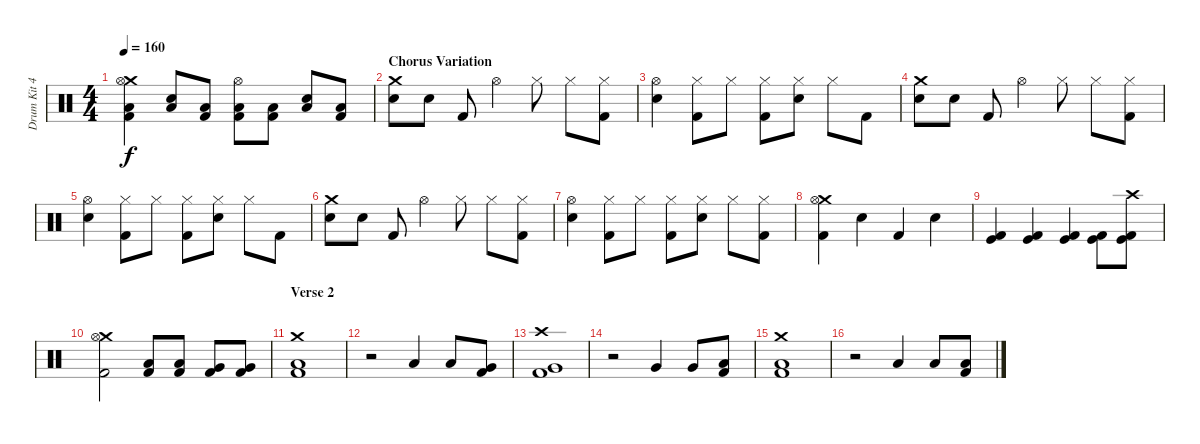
\track ("Drum Kit 42" "Drum Kit 4") {instrument percussion}
\staff {score}
\articulation defaults
\ts (4 4)
\tempo 160
\clef neutral
\ks c
("Crash medium (hit)" "Hi-Hat (open)" "Low Floor Tom (hit)" "Kick (hit) 2").4{dy f} ("Low Floor Tom (hit)" "Snare (hit) 2").8 ("Low Floor Tom (hit)" "Kick (hit) 2").8 ("Hi-Hat (open)" "Low Floor Tom (hit)" "Kick (hit) 2").8 ("Low Floor Tom (hit)" "Kick (hit) 2").8 ("Low Tom (hit)" "Snare (hit) 2").8 ("Low Tom (hit)" "Kick (hit) 2").8 |
\section ("" "Chorus Variation")
("Crash medium (hit)" "Snare (hit) 2").8 "Snare (hit) 2".8 "Kick (hit) 2".8 "Hi-Hat (open)".4 "Hi-Hat (closed)".8 "Hi-Hat (closed)".8 ("Hi-Hat (closed)" "Kick (hit) 2").8 |
("Hi-Hat (open)" "Snare (hit) 2").4 ("Hi-Hat (closed)" "Kick (hit) 2").8 "Hi-Hat (closed)".8 ("Hi-Hat (closed)" "Kick (hit) 2").8 ("Hi-Hat (closed)" "Snare (hit) 2").8 "Hi-Hat (closed)".8 "Kick (hit) 2".8 |
("Crash medium (hit)" "Snare (hit) 2").8 "Snare (hit) 2".8 "Kick (hit) 2".8 "Hi-Hat (open)".4 "Hi-Hat (closed)".8 "Hi-Hat (closed)".8 ("Hi-Hat (closed)" "Kick (hit) 2").8 |
("Hi-Hat (open)" "Snare (hit) 2").4 ("Hi-Hat (closed)" "Kick (hit) 2").8 "Hi-Hat (closed)".8 ("Hi-Hat (closed)" "Kick (hit) 2").8 ("Hi-Hat (closed)" "Snare (hit) 2").8 "Hi-Hat (closed)".8 "Kick (hit) 2".8 |
("Crash medium (hit)" "Snare (hit) 2").8 "Snare (hit) 2".8 "Kick (hit) 2".8 "Hi-Hat (open)".4 "Hi-Hat (closed)".8 "Hi-Hat (closed)".8 ("Hi-Hat (closed)" "Kick (hit) 2").8 |
("Hi-Hat (open)" "Snare (hit) 2").4 ("Hi-Hat (closed)" "Kick (hit) 2").8 "Hi-Hat (closed)".8 ("Hi-Hat (closed)" "Kick (hit) 2").8 ("Hi-Hat (closed)" "Snare (hit) 2").8 "Hi-Hat (closed)".8 ("Hi-Hat (closed)" "Kick (hit) 2").8 |
("Crash medium (hit)" "Hi-Hat (open)" "Kick (hit) 2").4 "Snare (hit) 2".4 "Kick (hit) 2".4 "Snare (hit) 2".4 |
("Kick (hit)" "Kick (hit) 2").4 ("Kick (hit)" "Kick (hit) 2").4 ("Kick (hit)" "Kick (hit) 2").4 ("Kick (hit)" "Kick (hit) 2").8 ("Crash high (hit)" "Kick (hit)" "Kick (hit) 2").8 |
("Crash medium (hit)" "Hi-Hat (open)" "Kick (hit) 2").2 ("Low Tom (hit)" "Kick (hit) 2").8 ("Low Tom (hit)" "Kick (hit) 2").8 ("Very Low Tom (hit)" "Kick (hit) 2").8 ("Very Low Tom (hit)" "Kick (hit) 2").8 |
\section ("" "Verse 2")
("Crash medium (hit)" "Low Tom (hit)" "Kick (hit) 2").1 |
r.2 "Low Tom (hit)".4 "Low Tom (hit)".8 ("Very Low Tom (hit)" "Kick (hit) 2").8 |
("Crash high (hit)" "Very Low Tom (hit)" "Kick (hit) 2").1 |
r.2 "Very Low Tom (hit)".4 "Very Low Tom (hit)".8 ("Low Floor Tom (hit)" "Kick (hit) 2").8 |
("Crash medium (hit)" "Low Floor Tom (hit)" "Kick (hit) 2").1 |
r.2 "Low Floor Tom (hit)".4 "Low Floor Tom (hit)".8 ("Low Floor Tom (hit)" "Kick (hit) 2").8
